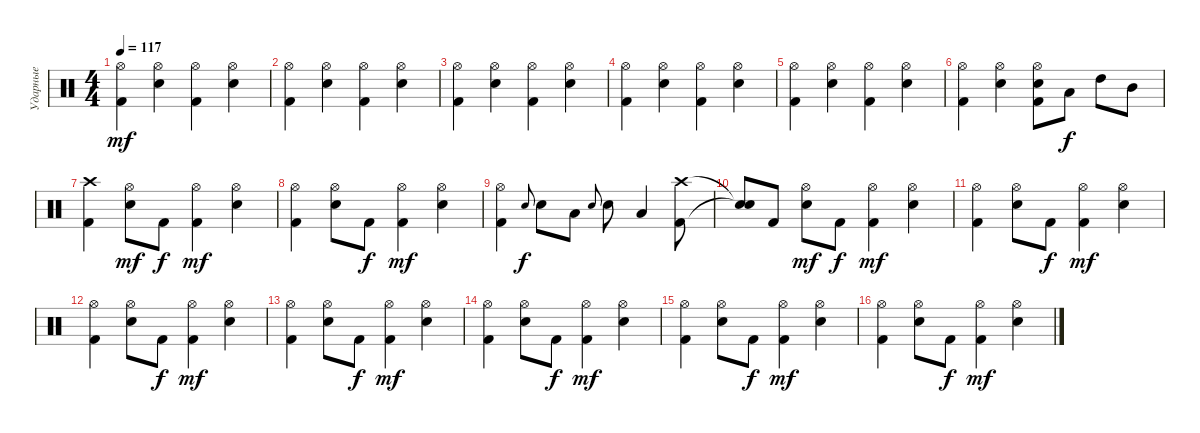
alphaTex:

\track ("Ударные" "Ударные") {instrument percussion}
\staff {score}
\articulation defaults
\ts (4 4)
\tempo 117
\clef neutral
\ks c
("Hi-Hat (open)" "Kick (hit) 2").4{dy mf} ("Hi-Hat (open)" "Electric Snare (hit)").4 ("Hi-Hat (open)" "Kick (hit) 2").4 ("Hi-Hat (open)" "Electric Snare (hit)").4 |
("Hi-Hat (open)" "Kick (hit) 2").4 ("Hi-Hat (open)" "Electric Snare (hit)").4 ("Hi-Hat (open)" "Kick (hit) 2").4 ("Hi-Hat (open)" "Electric Snare (hit)").4 |
("Hi-Hat (open)" "Kick (hit) 2").4 ("Hi-Hat (open)" "Electric Snare (hit)").4 ("Hi-Hat (open)" "Kick (hit) 2").4 ("Hi-Hat (open)" "Electric Snare (hit)").4 |
("Hi-Hat (open)" "Kick (hit) 2").4 ("Hi-Hat (open)" "Electric Snare (hit)").4 ("Hi-Hat (open)" "Kick (hit) 2").4 ("Hi-Hat (open)" "Electric Snare (hit)").4 |
("Hi-Hat (open)" "Kick (hit) 2").4 ("Hi-Hat (open)" "Electric Snare (hit)").4 ("Hi-Hat (open)" "Kick (hit) 2").4 ("Hi-Hat (open)" "Electric Snare (hit)").4 |
("Hi-Hat (open)" "Kick (hit) 2").4 ("Hi-Hat (open)" "Electric Snare (hit)").4 ("Hi-Hat (open)" "Electric Snare (hit)" "Kick (hit) 2").8 "Low Tom (hit)".8{dy f} "High Tom (hit)".8 "Mid Tom (hit)".8 |
("Crash high (hit)" "Kick (hit) 2").4 ("Hi-Hat (open)" "Electric Snare (hit)").8{dy mf} "Kick (hit) 2".8{dy f} ("Hi-Hat (open)" "Kick (hit) 2").4{dy mf} ("Hi-Hat (open)" "Electric Snare (hit)").4 |
("Hi-Hat (open)" "Kick (hit) 2").4 ("Hi-Hat (open)" "Electric Snare (hit)").8 "Kick (hit) 2".8{dy f} ("Hi-Hat (open)" "Kick (hit) 2").4{dy mf} ("Hi-Hat (open)" "Electric Snare (hit)").4 |
("Hi-Hat (open)" "Kick (hit) 2").4 "Electric Snare (hit)".8{gr onbeat dy f} "Electric Snare (hit)".8 "Low Tom (hit)".8 "Electric Snare (hit)".8{gr onbeat} "Electric Snare (hit)".8 "Low Tom (hit)".4 ("Crash high (hit)" "Kick (hit) 2").8 |
("Snare (hit)"{t} "Snare (hit)"{t}).8 "Kick (hit) 2".8 ("Hi-Hat (open)" "Electric Snare (hit)").8{dy mf} "Kick (hit) 2".8{dy f} ("Hi-Hat (open)" "Kick (hit) 2").4{dy mf} ("Hi-Hat (open)" "Electric Snare (hit)").4 |
("Hi-Hat (open)" "Kick (hit) 2").4 ("Hi-Hat (open)" "Electric Snare (hit)").8 "Kick (hit) 2".8{dy f} ("Hi-Hat (open)" "Kick (hit) 2").4{dy mf} ("Hi-Hat (open)" "Electric Snare (hit)").4 |
("Hi-Hat (open)" "Kick (hit) 2").4 ("Hi-Hat (open)" "Electric Snare (hit)").8 "Kick (hit) 2".8{dy f} ("Hi-Hat (open)" "Kick (hit) 2").4{dy mf} ("Hi-Hat (open)" "Electric Snare (hit)").4 |
("Hi-Hat (open)" "Kick (hit) 2").4 ("Hi-Hat (open)" "Electric Snare (hit)").8 "Kick (hit) 2".8{dy f} ("Hi-Hat (open)" "Kick (hit) 2").4{dy mf} ("Hi-Hat (open)" "Electric Snare (hit)").4 |
("Hi-Hat (open)" "Kick (hit) 2").4 ("Hi-Hat (open)" "Electric Snare (hit)").8 "Kick (hit) 2".8{dy f} ("Hi-Hat (open)" "Kick (hit) 2").4{dy mf} ("Hi-Hat (open)" "Electric Snare (hit)").4 |
("Hi-Hat (open)" "Kick (hit) 2").4 ("Hi-Hat (open)" "Electric Snare (hit)").8 "Kick (hit) 2".8{dy f} ("Hi-Hat (open)" "Kick (hit) 2").4{dy mf} ("Hi-Hat (open)" "Electric Snare (hit)").4 |
("Hi-Hat (open)" "Kick (hit) 2").4 ("Hi-Hat (open)" "Electric Snare (hit)").8 "Kick (hit) 2".8{dy f} ("Hi-Hat (open)" "Kick (hit) 2").4{dy mf} ("Hi-Hat (open)" "Electric Snare (hit)").4
